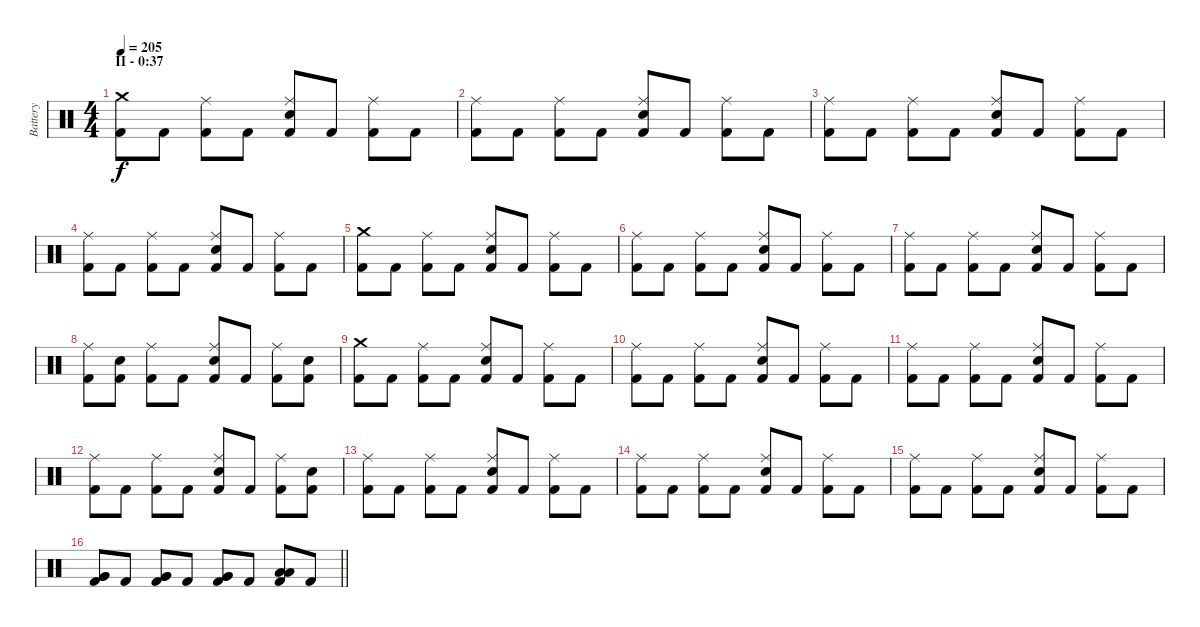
\track ("Battery" "Battery") {instrument percussion}
\staff {score}
\articulation defaults
\ts (4 4)
\section ("" "II - 0:37")
\tempo 205
\clef neutral
\ks c
("Crash medium (hit)" "Kick (hit) 2").8{dy f} "Kick (hit) 2".8 ("Ride (middle)" "Kick (hit) 2").8 "Kick (hit) 2".8 ("Ride (middle)" "Electric Snare (hit)" "Kick (hit) 2").8 "Kick (hit) 2".8 ("Ride (middle)" "Kick (hit) 2").8 "Kick (hit) 2".8 |
("Ride (middle)" "Kick (hit) 2").8 "Kick (hit) 2".8 ("Ride (middle)" "Kick (hit) 2").8 "Kick (hit) 2".8 ("Ride (middle)" "Electric Snare (hit)" "Kick (hit) 2").8 "Kick (hit) 2".8 ("Ride (middle)" "Kick (hit) 2").8 "Kick (hit) 2".8 |
("Ride (middle)" "Kick (hit) 2").8 "Kick (hit) 2".8 ("Ride (middle)" "Kick (hit) 2").8 "Kick (hit) 2".8 ("Ride (middle)" "Electric Snare (hit)" "Kick (hit) 2").8 "Kick (hit) 2".8 ("Ride (middle)" "Kick (hit) 2").8 "Kick (hit) 2".8 |
("Ride (middle)" "Kick (hit) 2").8 "Kick (hit) 2".8 ("Ride (middle)" "Kick (hit) 2").8 "Kick (hit) 2".8 ("Ride (middle)" "Electric Snare (hit)" "Kick (hit) 2").8 "Kick (hit) 2".8 ("Ride (middle)" "Kick (hit) 2").8 "Kick (hit) 2".8 |
("Crash medium (hit)" "Kick (hit) 2").8 "Kick (hit) 2".8 ("Ride (middle)" "Kick (hit) 2").8 "Kick (hit) 2".8 ("Ride (middle)" "Electric Snare (hit)" "Kick (hit) 2").8 "Kick (hit) 2".8 ("Ride (middle)" "Kick (hit) 2").8 "Kick (hit) 2".8 |
("Ride (middle)" "Kick (hit) 2").8 "Kick (hit) 2".8 ("Ride (middle)" "Kick (hit) 2").8 "Kick (hit) 2".8 ("Ride (middle)" "Electric Snare (hit)" "Kick (hit) 2").8 "Kick (hit) 2".8 ("Ride (middle)" "Kick (hit) 2").8 "Kick (hit) 2".8 |
("Ride (middle)" "Kick (hit) 2").8 "Kick (hit) 2".8 ("Ride (middle)" "Kick (hit) 2").8 "Kick (hit) 2".8 ("Ride (middle)" "Electric Snare (hit)" "Kick (hit) 2").8 "Kick (hit) 2".8 ("Ride (middle)" "Kick (hit) 2").8 "Kick (hit) 2".8 |
("Ride (middle)" "Kick (hit) 2").8 ("Electric Snare (hit)" "Kick (hit) 2").8 ("Ride (middle)" "Kick (hit) 2").8 "Kick (hit) 2".8 ("Ride (middle)" "Electric Snare (hit)" "Kick (hit) 2").8 "Kick (hit) 2".8 ("Ride (middle)" "Kick (hit) 2").8 ("Electric Snare (hit)" "Kick (hit) 2").8 |
("Crash medium (hit)" "Kick (hit) 2").8 "Kick (hit) 2".8 ("Ride (middle)" "Kick (hit) 2").8 "Kick (hit) 2".8 ("Ride (middle)" "Electric Snare (hit)" "Kick (hit) 2").8 "Kick (hit) 2".8 ("Ride (middle)" "Kick (hit) 2").8 "Kick (hit) 2".8 |
("Ride (middle)" "Kick (hit) 2").8 "Kick (hit) 2".8 ("Ride (middle)" "Kick (hit) 2").8 "Kick (hit) 2".8 ("Ride (middle)" "Electric Snare (hit)" "Kick (hit) 2").8 "Kick (hit) 2".8 ("Ride (middle)" "Kick (hit) 2").8 "Kick (hit) 2".8 |
("Ride (middle)" "Kick (hit) 2").8 "Kick (hit) 2".8 ("Ride (middle)" "Kick (hit) 2").8 "Kick (hit) 2".8 ("Ride (middle)" "Electric Snare (hit)" "Kick (hit) 2").8 "Kick (hit) 2".8 ("Ride (middle)" "Kick (hit) 2").8 "Kick (hit) 2".8 |
("Ride (middle)" "Kick (hit) 2").8 "Kick (hit) 2".8 ("Ride (middle)" "Kick (hit) 2").8 "Kick (hit) 2".8 ("Ride (middle)" "Electric Snare (hit)" "Kick (hit) 2").8 "Kick (hit) 2".8 ("Ride (middle)" "Kick (hit) 2").8 ("Electric Snare (hit)" "Kick (hit) 2").8 |
("Ride (middle)" "Kick (hit) 2").8 "Kick (hit) 2".8 ("Ride (middle)" "Kick (hit) 2").8 "Kick (hit) 2".8 ("Ride (middle)" "Electric Snare (hit)" "Kick (hit) 2").8 "Kick (hit) 2".8 ("Ride (middle)" "Kick (hit) 2").8 "Kick (hit) 2".8 |
("Ride (middle)" "Kick (hit) 2").8 "Kick (hit) 2".8 ("Ride (middle)" "Kick (hit) 2").8 "Kick (hit) 2".8 ("Ride (middle)" "Electric Snare (hit)" "Kick (hit) 2").8 "Kick (hit) 2".8 ("Ride (middle)" "Kick (hit) 2").8 "Kick (hit) 2".8 |
("Ride (middle)" "Kick (hit) 2").8 "Kick (hit) 2".8 ("Ride (middle)" "Kick (hit) 2").8 "Kick (hit) 2".8 ("Ride (middle)" "Electric Snare (hit)" "Kick (hit) 2").8 "Kick (hit) 2".8 ("Ride (middle)" "Kick (hit) 2").8 "Kick (hit) 2".8 |
\barLineRight lightlight
("Very Low Tom (hit)" "Very Low Tom (hit)" "Kick (hit) 2").8 "Kick (hit) 2".8 ("Very Low Tom (hit)" "Very Low Tom (hit)" "Kick (hit) 2").8 "Kick (hit) 2".8 ("Very Low Tom (hit)" "Very Low Tom (hit)" "Kick (hit) 2").8 "Kick (hit) 2".8 ("Low Floor Tom (hit)" "Low Floor Tom (hit)" "Kick (hit) 2").8 "Kick (hit) 2".8
